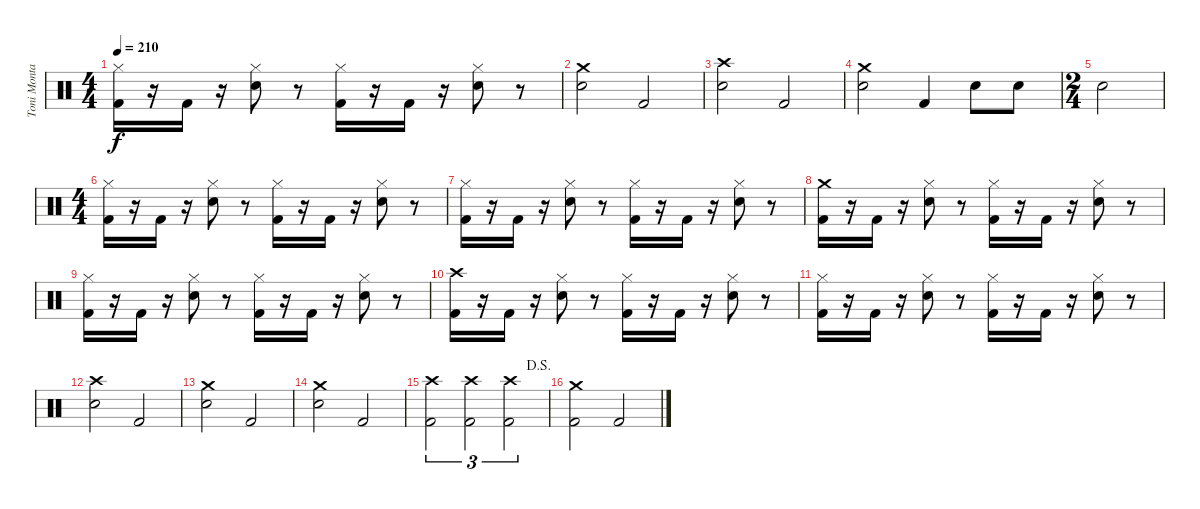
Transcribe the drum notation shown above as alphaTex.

\track ("Toni Montalvo" "Toni Monta") {solo instrument percussion}
\staff {score}
\articulation defaults
\ts (4 4)
\tempo 210
\clef neutral
\ks c
("Kick (hit) 2" "Hi-Hat (closed)").16{dy f} r.16 "Kick (hit) 2".16 r.16 ("Electric Snare (hit)" "Hi-Hat (closed)").8 r.8 ("Kick (hit) 2" "Hi-Hat (closed)").16 r.16 "Kick (hit) 2".16 r.16 ("Electric Snare (hit)" "Hi-Hat (closed)").8 r.8 |
("Electric Snare (hit)" "Crash medium (hit)").2 "Kick (hit) 2".2 |
("Electric Snare (hit)" "Crash high (hit)").2 "Kick (hit) 2".2 |
("Electric Snare (hit)" "Crash medium (hit)").2 "Kick (hit) 2".4 "Electric Snare (hit)".8 "Electric Snare (hit)".8 |
\ts (2 4)
"Electric Snare (hit)".2 |
\ts (4 4)
("Kick (hit) 2" "Hi-Hat (closed)").16 r.16 "Kick (hit) 2".16 r.16 ("Electric Snare (hit)" "Hi-Hat (closed)").8 r.8 ("Kick (hit) 2" "Hi-Hat (closed)").16 r.16 "Kick (hit) 2".16 r.16 ("Electric Snare (hit)" "Hi-Hat (closed)").8 r.8 |
("Kick (hit) 2" "Hi-Hat (closed)").16 r.16 "Kick (hit) 2".16 r.16 ("Electric Snare (hit)" "Hi-Hat (closed)").8 r.8 ("Kick (hit) 2" "Hi-Hat (closed)").16 r.16 "Kick (hit) 2".16 r.16 ("Electric Snare (hit)" "Hi-Hat (closed)").8 r.8 |
("Kick (hit) 2" "Crash medium (hit)").16 r.16 "Kick (hit) 2".16 r.16 ("Electric Snare (hit)" "Hi-Hat (closed)").8 r.8 ("Kick (hit) 2" "Hi-Hat (closed)").16 r.16 "Kick (hit) 2".16 r.16 ("Electric Snare (hit)" "Hi-Hat (closed)").8 r.8 |
("Kick (hit) 2" "Hi-Hat (closed)").16 r.16 "Kick (hit) 2".16 r.16 ("Electric Snare (hit)" "Hi-Hat (closed)").8 r.8 ("Kick (hit) 2" "Hi-Hat (closed)").16 r.16 "Kick (hit) 2".16 r.16 ("Electric Snare (hit)" "Hi-Hat (closed)").8 r.8 |
("Kick (hit) 2" "Crash high (hit)").16 r.16 "Kick (hit) 2".16 r.16 ("Electric Snare (hit)" "Hi-Hat (closed)").8 r.8 ("Kick (hit) 2" "Hi-Hat (closed)").16 r.16 "Kick (hit) 2".16 r.16 ("Electric Snare (hit)" "Hi-Hat (closed)").8 r.8 |
("Kick (hit) 2" "Hi-Hat (closed)").16 r.16 "Kick (hit) 2".16 r.16 ("Electric Snare (hit)" "Hi-Hat (closed)").8 r.8 ("Kick (hit) 2" "Hi-Hat (closed)").16 r.16 "Kick (hit) 2".16 r.16 ("Electric Snare (hit)" "Hi-Hat (closed)").8 r.8 |
("Electric Snare (hit)" "Crash high (hit)").2 "Kick (hit) 2".2 |
("Electric Snare (hit)" "Crash medium (hit)").2 "Kick (hit) 2".2 |
("Electric Snare (hit)" "Crash medium (hit)").2 "Kick (hit) 2".2 |
\jump dalsegno
("Crash high (hit)" "Kick (hit) 2").2{tu (3 2)} ("Crash high (hit)" "Kick (hit) 2").2{tu (3 2)} ("Crash high (hit)" "Kick (hit) 2").2{tu (3 2)} |
("Kick (hit) 2" "Crash medium (hit)").2 "Kick (hit) 2".2
